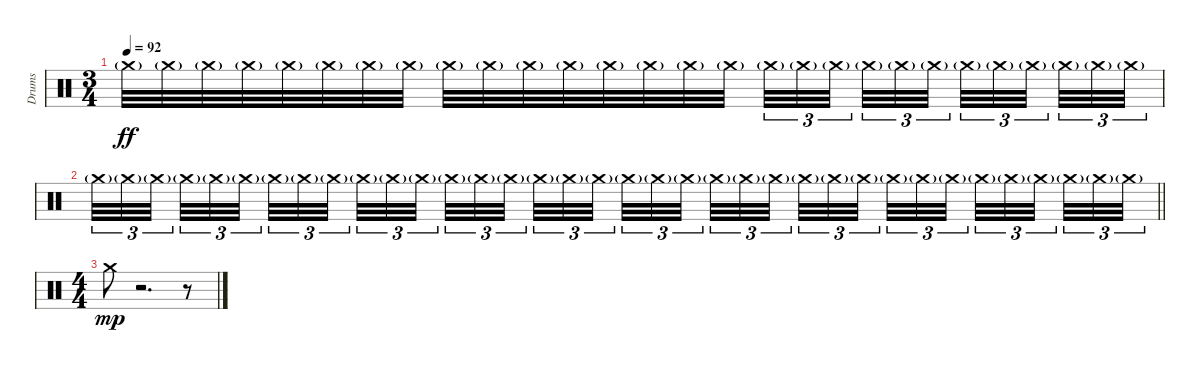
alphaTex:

\track ("Drum effects" "Drums") {instrument percussion}
\staff {score}
\articulation defaults
\ts (3 4)
\tempo 92
\clef neutral
\scale
0.333333
\ks c "Crash medium (hit)"{g}.32{dy ff} "Crash medium (hit)"{g}.32 "Crash medium (hit)"{g}.32 "Crash medium (hit)"{g}.32 "Crash medium (hit)"{g}.32 "Crash medium (hit)"{g}.32 "Crash medium (hit)"{g}.32 "Crash medium (hit)"{g}.32 "Crash medium (hit)"{g}.32 "Crash medium (hit)"{g}.32 "Crash medium (hit)"{g}.32 "Crash medium (hit)"{g}.32 "Crash medium (hit)"{g}.32 "Crash medium (hit)"{g}.32 "Crash medium (hit)"{g}.32 "Crash medium (hit)"{g}.32 "Crash medium (hit)"{g}.32{tu (3 2)} "Crash medium (hit)"{g}.32{tu (3 2)} "Crash medium (hit)"{g}.32{tu (3 2)} "Crash medium (hit)"{g}.32{tu (3 2)} "Crash medium (hit)"{g}.32{tu (3 2)} "Crash medium (hit)"{g}.32{tu (3 2)} "Crash medium (hit)"{g}.32{tu (3 2)} "Crash medium (hit)"{g}.32{tu (3 2)} "Crash medium (hit)"{g}.32{tu (3 2)} "Crash medium (hit)"{g}.32{tu (3 2)} "Crash medium (hit)"{g}.32{tu (3 2)} "Crash medium (hit)"{g}.32{tu (3 2)}
|
\scale
0.333333
\barLineRight lightlight "Crash medium (hit)"{g}.32{tu (3 2)} "Crash medium (hit)"{g}.32{tu (3 2)} "Crash medium (hit)"{g}.32{tu (3 2)} "Crash medium (hit)"{g}.32{tu (3 2)} "Crash medium (hit)"{g}.32{tu (3 2)} "Crash medium (hit)"{g}.32{tu (3 2)} "Crash medium (hit)"{g}.32{tu (3 2)} "Crash medium (hit)"{g}.32{tu (3 2)} "Crash medium (hit)"{g}.32{tu (3 2)} "Crash medium (hit)"{g}.32{tu (3 2)} "Crash medium (hit)"{g}.32{tu (3 2)} "Crash medium (hit)"{g}.32{tu (3 2)} "Crash medium (hit)"{g}.32{tu (3 2)} "Crash medium (hit)"{g}.32{tu (3 2)} "Crash medium (hit)"{g}.32{tu (3 2)} "Crash medium (hit)"{g}.32{tu (3 2)} "Crash medium (hit)"{g}.32{tu (3 2)} "Crash medium (hit)"{g}.32{tu (3 2)} "Crash medium (hit)"{g}.32{tu (3 2)} "Crash medium (hit)"{g}.32{tu (3 2)} "Crash medium (hit)"{g}.32{tu (3 2)} "Crash medium (hit)"{g}.32{tu (3 2)} "Crash medium (hit)"{g}.32{tu (3 2)} "Crash medium (hit)"{g}.32{tu (3 2)} "Crash medium (hit)"{g}.32{tu (3 2)} "Crash medium (hit)"{g}.32{tu (3 2)} "Crash medium (hit)"{g}.32{tu (3 2)} "Crash medium (hit)"{g}.32{tu (3 2)} "Crash medium (hit)"{g}.32{tu (3 2)} "Crash medium (hit)"{g}.32{tu (3 2)} "Crash medium (hit)"{g}.32{tu (3 2)} "Crash medium (hit)"{g}.32{tu (3 2)} "Crash medium (hit)"{g}.32{tu (3 2)} "Crash medium (hit)"{g}.32{tu (3 2)} "Crash medium (hit)"{g}.32{tu (3 2)} "Crash medium (hit)"{g}.32{tu (3 2)}
|
\ts (4 4)
\beaming (8 2 2 2 2)
\scale
0.472222 "Crash medium (hit)".8{dy mp} r.2{d} r.8 |
\scale
0.263889 |
\scale
0.263889 |
\scale
0.333333 |
\scale
0.333333 |
\scale
0.333333 |
\scale
0.333333 |
\scale
0.333333 |
\scale
0.333333 |
\scale
0.333333 |
\scale
0.333333 |
\scale
0.333333 |
\scale
0.333333 |
\scale
0.333333
